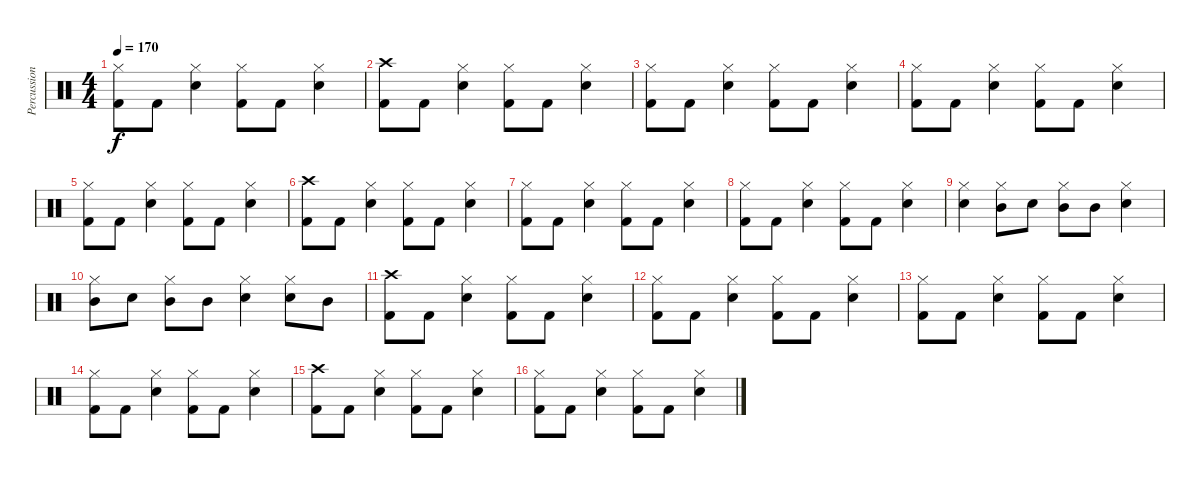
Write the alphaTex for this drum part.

\track ("Percussion" "Percussion") {instrument percussion}
\staff {score}
\articulation defaults
\ts (4 4)
\tempo 170
\clef neutral
\ks c
("Hi-Hat (closed)" "Kick (hit) 2").8{dy f} "Kick (hit) 2".8 ("Hi-Hat (closed)" "Electric Snare (hit)").4 ("Hi-Hat (closed)" "Kick (hit) 2").8 "Kick (hit) 2".8 ("Hi-Hat (closed)" "Electric Snare (hit)").4 |
("Crash high (hit)" "Kick (hit) 2").8 "Kick (hit) 2".8 ("Hi-Hat (closed)" "Electric Snare (hit)").4 ("Hi-Hat (closed)" "Kick (hit) 2").8 "Kick (hit) 2".8 ("Hi-Hat (closed)" "Electric Snare (hit)").4 |
("Hi-Hat (closed)" "Kick (hit) 2").8 "Kick (hit) 2".8 ("Hi-Hat (closed)" "Electric Snare (hit)").4 ("Hi-Hat (closed)" "Kick (hit) 2").8 "Kick (hit) 2".8 ("Hi-Hat (closed)" "Electric Snare (hit)").4 |
("Hi-Hat (closed)" "Kick (hit) 2").8 "Kick (hit) 2".8 ("Hi-Hat (closed)" "Electric Snare (hit)").4 ("Hi-Hat (closed)" "Kick (hit) 2").8 "Kick (hit) 2".8 ("Hi-Hat (closed)" "Electric Snare (hit)").4 |
("Hi-Hat (closed)" "Kick (hit) 2").8 "Kick (hit) 2".8 ("Hi-Hat (closed)" "Electric Snare (hit)").4 ("Hi-Hat (closed)" "Kick (hit) 2").8 "Kick (hit) 2".8 ("Hi-Hat (closed)" "Electric Snare (hit)").4 |
("Crash high (hit)" "Kick (hit) 2").8 "Kick (hit) 2".8 ("Hi-Hat (closed)" "Electric Snare (hit)").4 ("Hi-Hat (closed)" "Kick (hit) 2").8 "Kick (hit) 2".8 ("Hi-Hat (closed)" "Electric Snare (hit)").4 |
("Hi-Hat (closed)" "Kick (hit) 2").8 "Kick (hit) 2".8 ("Hi-Hat (closed)" "Electric Snare (hit)").4 ("Hi-Hat (closed)" "Kick (hit) 2").8 "Kick (hit) 2".8 ("Hi-Hat (closed)" "Electric Snare (hit)").4 |
("Hi-Hat (closed)" "Kick (hit) 2").8 "Kick (hit) 2".8 ("Hi-Hat (closed)" "Electric Snare (hit)").4 ("Hi-Hat (closed)" "Kick (hit) 2").8 "Kick (hit) 2".8 ("Hi-Hat (closed)" "Electric Snare (hit)").4 |
("Hi-Hat (closed)" "Electric Snare (hit)").4 ("Hi-Hat (closed)" "Mid Tom (hit)").8 "Electric Snare (hit)".8 ("Hi-Hat (closed)" "Mid Tom (hit)").8 "Mid Tom (hit)".8 ("Hi-Hat (closed)" "Electric Snare (hit)").4 |
("Hi-Hat (closed)" "Mid Tom (hit)").8 "Electric Snare (hit)".8 ("Hi-Hat (closed)" "Mid Tom (hit)").8 "Mid Tom (hit)".8 ("Hi-Hat (closed)" "Electric Snare (hit)").4 ("Hi-Hat (closed)" "Electric Snare (hit)").8 "Mid Tom (hit)".8 |
("Crash high (hit)" "Kick (hit) 2").8 "Kick (hit) 2".8 ("Hi-Hat (closed)" "Electric Snare (hit)").4 ("Hi-Hat (closed)" "Kick (hit) 2").8 "Kick (hit) 2".8 ("Hi-Hat (closed)" "Electric Snare (hit)").4 |
("Hi-Hat (closed)" "Kick (hit) 2").8 "Kick (hit) 2".8 ("Hi-Hat (closed)" "Electric Snare (hit)").4 ("Hi-Hat (closed)" "Kick (hit) 2").8 "Kick (hit) 2".8 ("Hi-Hat (closed)" "Electric Snare (hit)").4 |
("Hi-Hat (closed)" "Kick (hit) 2").8 "Kick (hit) 2".8 ("Hi-Hat (closed)" "Electric Snare (hit)").4 ("Hi-Hat (closed)" "Kick (hit) 2").8 "Kick (hit) 2".8 ("Hi-Hat (closed)" "Electric Snare (hit)").4 |
("Hi-Hat (closed)" "Kick (hit) 2").8 "Kick (hit) 2".8 ("Hi-Hat (closed)" "Electric Snare (hit)").4 ("Hi-Hat (closed)" "Kick (hit) 2").8 "Kick (hit) 2".8 ("Hi-Hat (closed)" "Electric Snare (hit)").4 |
("Crash high (hit)" "Kick (hit) 2").8 "Kick (hit) 2".8 ("Hi-Hat (closed)" "Electric Snare (hit)").4 ("Hi-Hat (closed)" "Kick (hit) 2").8 "Kick (hit) 2".8 ("Hi-Hat (closed)" "Electric Snare (hit)").4 |
("Hi-Hat (closed)" "Kick (hit) 2").8 "Kick (hit) 2".8 ("Hi-Hat (closed)" "Electric Snare (hit)").4 ("Hi-Hat (closed)" "Kick (hit) 2").8 "Kick (hit) 2".8 ("Hi-Hat (closed)" "Electric Snare (hit)").4
